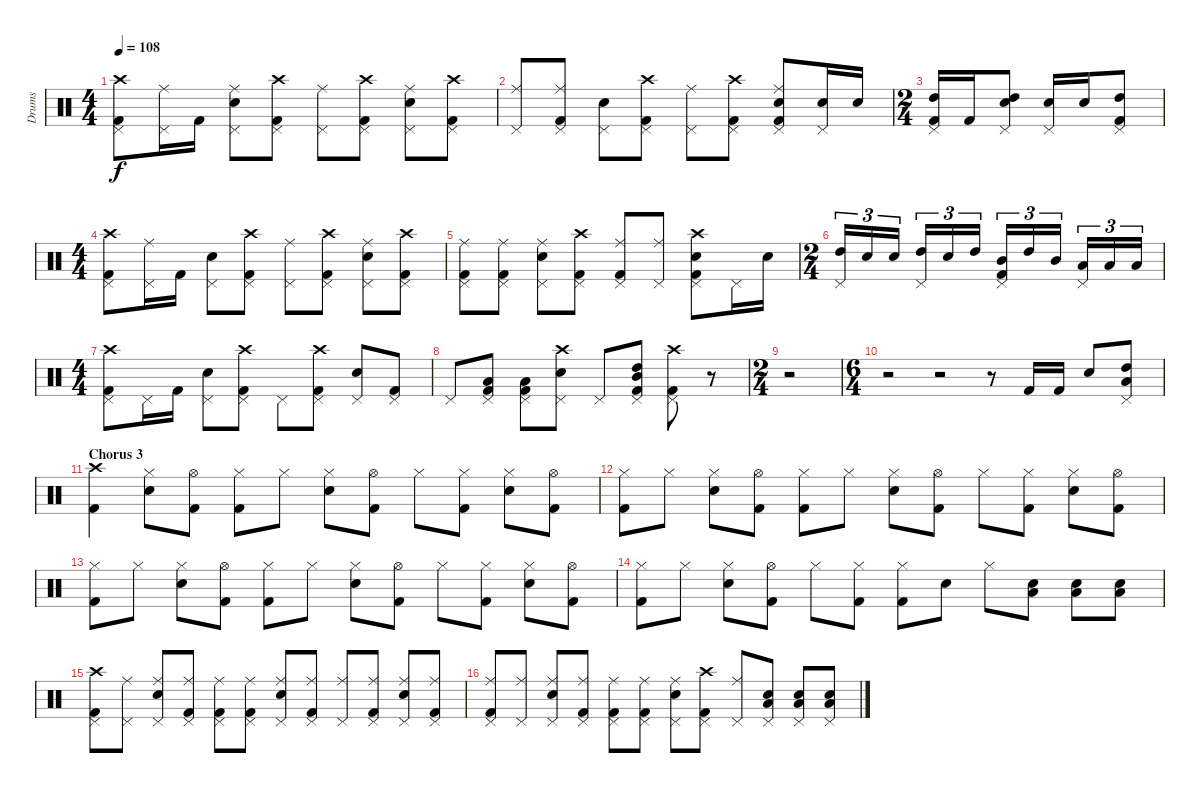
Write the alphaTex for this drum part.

\track ("Drums" "Drums") {instrument percussion}
\staff {score}
\articulation defaults
\ts (4 4)
\tempo 108
\clef neutral
\ks c
("Crash high (hit)" "Kick (hit) 2" "Pedal Hi-Hat (hit)").8{dy f} ("Ride (middle)" "Pedal Hi-Hat (hit)").16 "Kick (hit) 2".16 ("Ride (middle)" "Electric Snare (hit)" "Pedal Hi-Hat (hit)").8 ("Crash high (hit)" "Kick (hit) 2" "Pedal Hi-Hat (hit)").8 ("Ride (middle)" "Pedal Hi-Hat (hit)").8 ("Crash high (hit)" "Kick (hit) 2" "Pedal Hi-Hat (hit)").8 ("Ride (middle)" "Electric Snare (hit)" "Pedal Hi-Hat (hit)").8 ("Crash high (hit)" "Kick (hit) 2" "Pedal Hi-Hat (hit)").8 |
("Ride (middle)" "Pedal Hi-Hat (hit)").8 ("Ride (middle)" "Kick (hit) 2" "Pedal Hi-Hat (hit)").8 ("Electric Snare (hit)" "Pedal Hi-Hat (hit)").8 ("Crash high (hit)" "Kick (hit) 2" "Pedal Hi-Hat (hit)").8 ("Ride (middle)" "Pedal Hi-Hat (hit)").8 ("Crash high (hit)" "Kick (hit) 2" "Pedal Hi-Hat (hit)").8 ("Ride (middle)" "Electric Snare (hit)" "Kick (hit) 2" "Pedal Hi-Hat (hit)").8 ("Electric Snare (hit)" "Pedal Hi-Hat (hit)").16 "Electric Snare (hit)".16 |
\ts (2 4)
("High Tom (hit)" "Kick (hit) 2" "Pedal Hi-Hat (hit)").16 "Kick (hit) 2".16 ("High Tom (hit)" "Electric Snare (hit)" "Pedal Hi-Hat (hit)").8 ("Electric Snare (hit)" "Pedal Hi-Hat (hit)").16 "Electric Snare (hit)".16 ("High Tom (hit)" "Kick (hit) 2" "Pedal Hi-Hat (hit)").8 |
\ts (4 4)
("Crash high (hit)" "Kick (hit) 2" "Pedal Hi-Hat (hit)").8 ("Ride (middle)" "Pedal Hi-Hat (hit)").16 "Kick (hit) 2".16 ("Electric Snare (hit)" "Pedal Hi-Hat (hit)").8 ("Crash high (hit)" "Kick (hit) 2" "Pedal Hi-Hat (hit)").8 ("Ride (middle)" "Pedal Hi-Hat (hit)").8 ("Crash high (hit)" "Kick (hit) 2" "Pedal Hi-Hat (hit)").8 ("Ride (middle)" "Electric Snare (hit)" "Pedal Hi-Hat (hit)").8 ("Crash high (hit)" "Kick (hit) 2" "Pedal Hi-Hat (hit)").8 |
("Ride (middle)" "Kick (hit) 2" "Pedal Hi-Hat (hit)").8 ("Ride (middle)" "Kick (hit) 2" "Pedal Hi-Hat (hit)").8 ("Ride (middle)" "Electric Snare (hit)" "Pedal Hi-Hat (hit)").8 ("Crash high (hit)" "Kick (hit) 2" "Pedal Hi-Hat (hit)").8 ("Ride (middle)" "Kick (hit) 2" "Pedal Hi-Hat (hit)").8 ("Ride (middle)" "Pedal Hi-Hat (hit)").8 ("Crash high (hit)" "Electric Snare (hit)" "Kick (hit) 2" "Pedal Hi-Hat (hit)").8 "Pedal Hi-Hat (hit)".16 "Electric Snare (hit)".16 |
\ts (2 4)
("High Tom (hit)" "Pedal Hi-Hat (hit)").16{tu (3 2)} "Electric Snare (hit)".16{tu (3 2)} "Electric Snare (hit)".16{tu (3 2)} ("High Tom (hit)" "Pedal Hi-Hat (hit)").16{tu (3 2)} "Electric Snare (hit)".16{tu (3 2)} "High Tom (hit)".16{tu (3 2)} ("Mid Tom (hit)" "Kick (hit) 2" "Pedal Hi-Hat (hit)").16{tu (3 2)} "High Tom (hit)".16{tu (3 2)} "Mid Tom (hit)".16{tu (3 2)} ("Low Tom (hit)" "Pedal Hi-Hat (hit)").16{tu (3 2)} "Low Tom (hit)".16{tu (3 2)} "Low Tom (hit)".16{tu (3 2)} |
\ts (4 4)
("Crash high (hit)" "Kick (hit) 2" "Pedal Hi-Hat (hit)").8 "Pedal Hi-Hat (hit)".16 "Kick (hit) 2".16 ("Electric Snare (hit)" "Pedal Hi-Hat (hit)").8 ("Crash high (hit)" "Kick (hit) 2" "Pedal Hi-Hat (hit)").8 "Pedal Hi-Hat (hit)".8 ("Crash high (hit)" "Kick (hit) 2" "Pedal Hi-Hat (hit)").8 ("Electric Snare (hit)" "Pedal Hi-Hat (hit)").8 ("Kick (hit) 2" "Pedal Hi-Hat (hit)").8 |
"Pedal Hi-Hat (hit)".8 ("Low Tom (hit)" "Kick (hit) 2" "Pedal Hi-Hat (hit)").8 ("Low Tom (hit)" "Kick (hit) 2" "Pedal Hi-Hat (hit)").8 ("Crash high (hit)" "Electric Snare (hit)" "Pedal Hi-Hat (hit)").8 "Pedal Hi-Hat (hit)".8 ("High Tom (hit)" "Mid Tom (hit)" "Kick (hit) 2" "Pedal Hi-Hat (hit)").8 ("Crash high (hit)" "Kick (hit) 2" "Pedal Hi-Hat (hit)").8 r.8 |
\ts (2 4)
r.2 |
\ts (6 4)
r.2 r.2 r.8 "Kick (hit) 2".16 "Kick (hit) 2".16 "Electric Snare (hit)".8 ("High Tom (hit)" "Low Tom (hit)" "Pedal Hi-Hat (hit)").8 |
\section ("" "Chorus 3")
("Crash high (hit)" "Kick (hit) 2").4 ("Hi-Hat (closed)" "Electric Snare (hit)").8 ("Hi-Hat (open)" "Kick (hit) 2").8 ("Hi-Hat (closed)" "Kick (hit) 2").8 "Hi-Hat (closed)".8 ("Hi-Hat (closed)" "Electric Snare (hit)").8 ("Hi-Hat (open)" "Kick (hit) 2").8 "Hi-Hat (closed)".8 ("Hi-Hat (closed)" "Kick (hit) 2").8 ("Hi-Hat (closed)" "Electric Snare (hit)").8 ("Hi-Hat (open)" "Kick (hit) 2").8 |
("Hi-Hat (closed)" "Kick (hit) 2").8 "Hi-Hat (closed)".8 ("Hi-Hat (closed)" "Electric Snare (hit)").8 ("Hi-Hat (open)" "Kick (hit) 2").8 ("Hi-Hat (closed)" "Kick (hit) 2").8 "Hi-Hat (closed)".8 ("Hi-Hat (closed)" "Electric Snare (hit)").8 ("Hi-Hat (open)" "Kick (hit) 2").8 "Hi-Hat (closed)".8 ("Hi-Hat (closed)" "Kick (hit) 2").8 ("Hi-Hat (closed)" "Electric Snare (hit)").8 ("Hi-Hat (open)" "Kick (hit) 2").8 |
("Hi-Hat (closed)" "Kick (hit) 2").8 "Hi-Hat (closed)".8 ("Hi-Hat (closed)" "Electric Snare (hit)").8 ("Hi-Hat (open)" "Kick (hit) 2").8 ("Hi-Hat (closed)" "Kick (hit) 2").8 "Hi-Hat (closed)".8 ("Hi-Hat (closed)" "Electric Snare (hit)").8 ("Hi-Hat (open)" "Kick (hit) 2").8 "Hi-Hat (closed)".8 ("Hi-Hat (closed)" "Kick (hit) 2").8 ("Hi-Hat (closed)" "Electric Snare (hit)").8 ("Hi-Hat (open)" "Kick (hit) 2").8 |
("Hi-Hat (closed)" "Kick (hit) 2").8 "Hi-Hat (closed)".8 ("Hi-Hat (closed)" "Electric Snare (hit)").8 ("Hi-Hat (open)" "Kick (hit) 2").8 "Hi-Hat (closed)".8 ("Hi-Hat (closed)" "Kick (hit) 2").8 ("Hi-Hat (closed)" "Kick (hit) 2").8 "Electric Snare (hit)".8 "Hi-Hat (closed)".8 ("Low Tom (hit)" "Electric Snare (hit)").8 ("Low Tom (hit)" "Electric Snare (hit)").8 ("Low Tom (hit)" "Electric Snare (hit)").8 |
("Crash high (hit)" "Pedal Hi-Hat (hit)" "Kick (hit) 2").8 ("Ride (middle)" "Pedal Hi-Hat (hit)").8 ("Ride (middle)" "Pedal Hi-Hat (hit)" "Electric Snare (hit)").8 ("Ride (middle)" "Pedal Hi-Hat (hit)" "Kick (hit) 2").8 ("Ride (middle)" "Pedal Hi-Hat (hit)" "Kick (hit) 2").8 ("Ride (middle)" "Pedal Hi-Hat (hit)" "Kick (hit) 2").8 ("Ride (middle)" "Pedal Hi-Hat (hit)" "Electric Snare (hit)").8 ("Ride (middle)" "Pedal Hi-Hat (hit)" "Kick (hit) 2").8 ("Ride (middle)" "Pedal Hi-Hat (hit)").8 ("Ride (middle)" "Pedal Hi-Hat (hit)" "Kick (hit) 2").8 ("Ride (middle)" "Pedal Hi-Hat (hit)" "Electric Snare (hit)").8 ("Ride (middle)" "Pedal Hi-Hat (hit)" "Kick (hit) 2").8 |
("Ride (middle)" "Pedal Hi-Hat (hit)" "Kick (hit) 2").8 ("Ride (middle)" "Pedal Hi-Hat (hit)").8 ("Ride (middle)" "Pedal Hi-Hat (hit)" "Electric Snare (hit)").8 ("Ride (middle)" "Pedal Hi-Hat (hit)" "Kick (hit) 2").8 ("Ride (middle)" "Pedal Hi-Hat (hit)" "Kick (hit) 2").8 ("Ride (middle)" "Pedal Hi-Hat (hit)" "Kick (hit) 2").8 ("Ride (middle)" "Pedal Hi-Hat (hit)" "Electric Snare (hit)").8 ("Crash high (hit)" "Pedal Hi-Hat (hit)" "Kick (hit) 2").8 ("Ride (middle)" "Pedal Hi-Hat (hit)").8 ("Pedal Hi-Hat (hit)" "Low Tom (hit)" "Electric Snare (hit)").8 ("Pedal Hi-Hat (hit)" "Low Tom (hit)" "Electric Snare (hit)").8 ("Pedal Hi-Hat (hit)" "Low Tom (hit)" "Electric Snare (hit)").8
